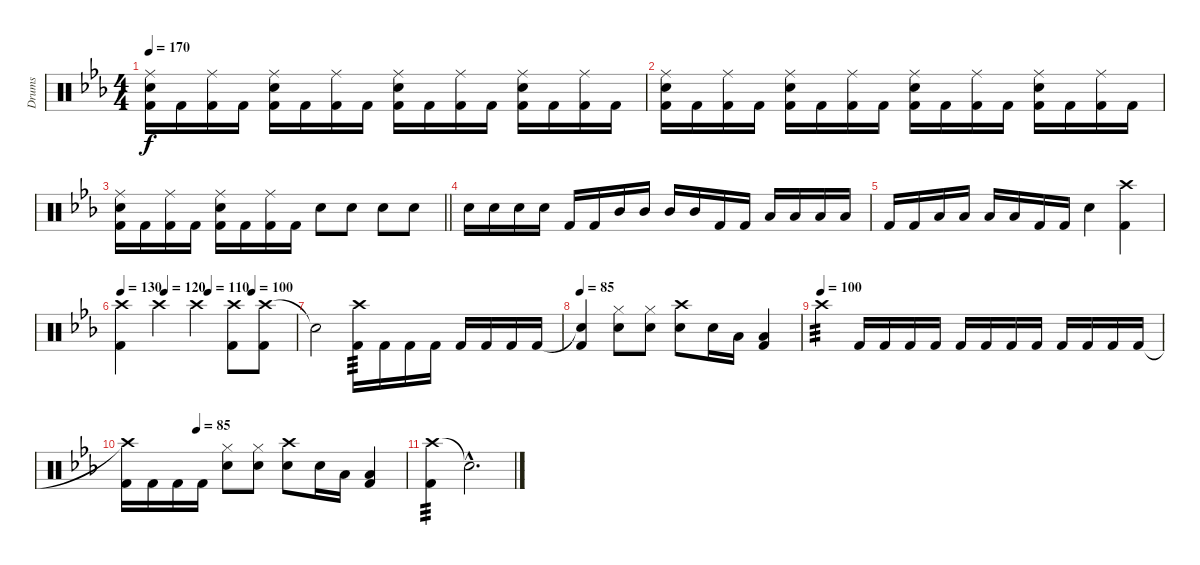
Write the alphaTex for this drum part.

\track ("Drums" "Drums") {instrument percussion}
\staff {score}
\articulation defaults
\ts (4 4)
\tempo 170
\clef neutral
\ks eb
("Ride (middle)" "Snare (hit) 2" "Kick (hit) 2").16{dy f} "Kick (hit) 2".16 ("Ride (middle)" "Kick (hit) 2").16 "Kick (hit) 2".16 ("Ride (middle)" "Snare (hit) 2" "Kick (hit) 2").16 "Kick (hit) 2".16 ("Ride (middle)" "Kick (hit) 2").16 "Kick (hit) 2".16 ("Ride (middle)" "Snare (hit) 2" "Kick (hit) 2").16 "Kick (hit) 2".16 ("Ride (middle)" "Kick (hit) 2").16 "Kick (hit) 2".16 ("Ride (middle)" "Snare (hit) 2" "Kick (hit) 2").16 "Kick (hit) 2".16 ("Ride (middle)" "Kick (hit) 2").16 "Kick (hit) 2".16 |
("Ride (middle)" "Snare (hit) 2" "Kick (hit) 2").16 "Kick (hit) 2".16 ("Ride (middle)" "Kick (hit) 2").16 "Kick (hit) 2".16 ("Ride (middle)" "Snare (hit) 2" "Kick (hit) 2").16 "Kick (hit) 2".16 ("Ride (middle)" "Kick (hit) 2").16 "Kick (hit) 2".16 ("Ride (middle)" "Snare (hit) 2" "Kick (hit) 2").16 "Kick (hit) 2".16 ("Ride (middle)" "Kick (hit) 2").16 "Kick (hit) 2".16 ("Ride (middle)" "Snare (hit) 2" "Kick (hit) 2").16 "Kick (hit) 2".16 ("Ride (middle)" "Kick (hit) 2").16 "Kick (hit) 2".16 |
\barLineRight lightlight
("Ride (middle)" "Snare (hit) 2" "Kick (hit) 2").16 "Kick (hit) 2".16 ("Ride (middle)" "Kick (hit) 2").16 "Kick (hit) 2".16 ("Ride (middle)" "Snare (hit) 2" "Kick (hit) 2").16 "Kick (hit) 2".16 ("Ride (middle)" "Kick (hit) 2").16 "Kick (hit) 2".16 "Snare (hit) 2".8 "Snare (hit) 2".8 "Snare (hit) 2".8 "Snare (hit) 2".8 |
"Snare (hit) 2".16 "Snare (hit) 2".16 "Snare (hit) 2".16 "Snare (hit) 2".16 "Kick (hit) 2".16 "Kick (hit) 2".16 "Mid Tom (hit)".16 "Mid Tom (hit)".16 "Mid Tom (hit)".16 "Mid Tom (hit)".16 "Kick (hit) 2".16 "Kick (hit) 2".16 "Low Tom (hit)".16 "Low Tom (hit)".16 "Low Tom (hit)".16 "Low Tom (hit)".16 |
"Kick (hit) 2".16 "Kick (hit) 2".16 "Low Floor Tom (hit)".16 "Low Floor Tom (hit)".16 "Low Floor Tom (hit)".16 "Low Floor Tom (hit)".16 "Kick (hit) 2".16 "Kick (hit) 2".16 "Snare (hit) 2".4 ("Crash high (hit)" "Kick (hit) 2").4 |
\tempo 130
\tempo (120 0.25)
\tempo (110 0.5)
\tempo (100 0.75)
("Crash high (hit)" "Kick (hit) 2").4 "Crash high (hit)".4 "Crash high (hit)".4 ("Crash high (hit)" "Kick (hit) 2").8 ("Crash high (hit)" "Kick (hit) 2").8 |
"Snare (hit)"{t}.2 ("Crash high (hit)" "Kick (hit) 2").16{tp 3} "Kick (hit) 2".16 "Kick (hit) 2".16 "Kick (hit) 2".16 "Kick (hit) 2".16 "Kick (hit) 2".16 "Kick (hit) 2".16 "Kick (hit) 2".16 |
\tempo 85
("Snare (hit)"{t} "Kick (hit) 2").4 ("Hi-Hat (closed)" "Snare (hit) 2").8 ("Hi-Hat (closed)" "Snare (hit) 2").8 ("Crash high (hit)" "Snare (hit) 2").8 "Snare (hit) 2".16 "Low Tom (hit)".16 ("Low Floor Tom (hit)" "Kick (hit) 2").4 |
\tempo (100)
"Crash high (hit)".4{tp 3} "Kick (hit) 2".16 "Kick (hit) 2".16 "Kick (hit) 2".16 "Kick (hit) 2".16 "Kick (hit) 2".16 "Kick (hit) 2".16 "Kick (hit) 2".16 "Kick (hit) 2".16 "Kick (hit) 2".16 "Kick (hit) 2".16 "Kick (hit) 2".16 "Kick (hit) 2".16 |
\tempo (85 0.25)
("Crash high (hit)"{t} "Kick (hit) 2").16 "Kick (hit) 2".16 "Kick (hit) 2".16 "Kick (hit) 2".16 ("Hi-Hat (closed)" "Snare (hit) 2").8 ("Hi-Hat (closed)" "Snare (hit) 2").8 ("Crash high (hit)" "Snare (hit) 2").8 "Snare (hit) 2".16 "Low Tom (hit)".16 ("Low Floor Tom (hit)" "Kick (hit) 2").4 |
("Crash high (hit)" "Kick (hit) 2").4{tp 3} "Snare (hit)"{hac t}.2{d}
